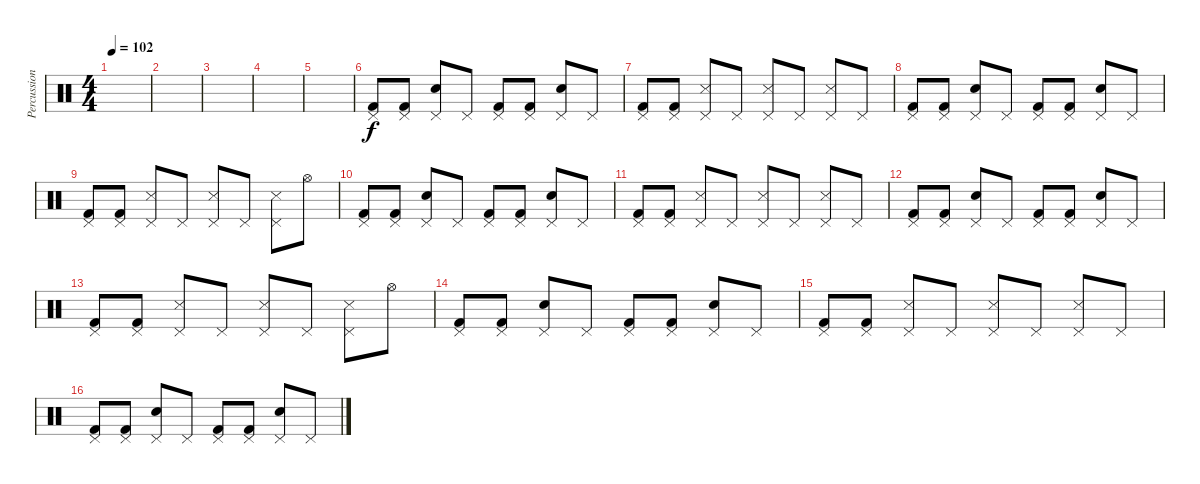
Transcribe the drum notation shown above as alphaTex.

\track ("Percussion" "Percussion") {instrument percussion}
\staff {score}
\articulation defaults
\ts (4 4)
\tempo 102
\clef neutral
\ks c
|
|
|
|
|
("Kick (hit) 2" "Pedal Hi-Hat (hit)").8 ("Kick (hit) 2" "Pedal Hi-Hat (hit)").8 ("Snare (hit) 2" "Pedal Hi-Hat (hit)").8 "Pedal Hi-Hat (hit)".8 ("Kick (hit) 2" "Pedal Hi-Hat (hit)").8 ("Kick (hit) 2" "Pedal Hi-Hat (hit)").8 ("Snare (hit) 2" "Pedal Hi-Hat (hit)").8 "Pedal Hi-Hat (hit)".8 |
("Kick (hit) 2" "Pedal Hi-Hat (hit)").8 ("Kick (hit) 2" "Pedal Hi-Hat (hit)").8 ("Metronome (hit)" "Pedal Hi-Hat (hit)").8 "Pedal Hi-Hat (hit)".8 ("Metronome (hit)" "Pedal Hi-Hat (hit)").8 "Pedal Hi-Hat (hit)".8 ("Metronome (hit)" "Pedal Hi-Hat (hit)").8 "Pedal Hi-Hat (hit)".8 |
("Kick (hit) 2" "Pedal Hi-Hat (hit)").8 ("Kick (hit) 2" "Pedal Hi-Hat (hit)").8 ("Snare (hit) 2" "Pedal Hi-Hat (hit)").8 "Pedal Hi-Hat (hit)".8 ("Kick (hit) 2" "Pedal Hi-Hat (hit)").8 ("Kick (hit) 2" "Pedal Hi-Hat (hit)").8 ("Snare (hit) 2" "Pedal Hi-Hat (hit)").8 "Pedal Hi-Hat (hit)".8 |
("Kick (hit) 2" "Pedal Hi-Hat (hit)").8 ("Kick (hit) 2" "Pedal Hi-Hat (hit)").8 ("Metronome (hit)" "Pedal Hi-Hat (hit)").8 "Pedal Hi-Hat (hit)".8 ("Metronome (hit)" "Pedal Hi-Hat (hit)").8 "Pedal Hi-Hat (hit)".8 ("Metronome (hit)" "Pedal Hi-Hat (hit)").8 "Hi-Hat (open)".8 |
("Kick (hit) 2" "Pedal Hi-Hat (hit)").8 ("Kick (hit) 2" "Pedal Hi-Hat (hit)").8 ("Snare (hit) 2" "Pedal Hi-Hat (hit)").8 "Pedal Hi-Hat (hit)".8 ("Kick (hit) 2" "Pedal Hi-Hat (hit)").8 ("Kick (hit) 2" "Pedal Hi-Hat (hit)").8 ("Snare (hit) 2" "Pedal Hi-Hat (hit)").8 "Pedal Hi-Hat (hit)".8 |
("Kick (hit) 2" "Pedal Hi-Hat (hit)").8 ("Kick (hit) 2" "Pedal Hi-Hat (hit)").8 ("Metronome (hit)" "Pedal Hi-Hat (hit)").8 "Pedal Hi-Hat (hit)".8 ("Metronome (hit)" "Pedal Hi-Hat (hit)").8 "Pedal Hi-Hat (hit)".8 ("Metronome (hit)" "Pedal Hi-Hat (hit)").8 "Pedal Hi-Hat (hit)".8 |
("Kick (hit) 2" "Pedal Hi-Hat (hit)").8 ("Kick (hit) 2" "Pedal Hi-Hat (hit)").8 ("Snare (hit) 2" "Pedal Hi-Hat (hit)").8 "Pedal Hi-Hat (hit)".8 ("Kick (hit) 2" "Pedal Hi-Hat (hit)").8 ("Kick (hit) 2" "Pedal Hi-Hat (hit)").8 ("Snare (hit) 2" "Pedal Hi-Hat (hit)").8 "Pedal Hi-Hat (hit)".8 |
("Kick (hit) 2" "Pedal Hi-Hat (hit)").8 ("Kick (hit) 2" "Pedal Hi-Hat (hit)").8 ("Metronome (hit)" "Pedal Hi-Hat (hit)").8 "Pedal Hi-Hat (hit)".8 ("Metronome (hit)" "Pedal Hi-Hat (hit)").8 "Pedal Hi-Hat (hit)".8 ("Metronome (hit)" "Pedal Hi-Hat (hit)").8 "Hi-Hat (open)".8 |
("Kick (hit) 2" "Pedal Hi-Hat (hit)").8 ("Kick (hit) 2" "Pedal Hi-Hat (hit)").8 ("Snare (hit) 2" "Pedal Hi-Hat (hit)").8 "Pedal Hi-Hat (hit)".8 ("Kick (hit) 2" "Pedal Hi-Hat (hit)").8 ("Kick (hit) 2" "Pedal Hi-Hat (hit)").8 ("Snare (hit) 2" "Pedal Hi-Hat (hit)").8 "Pedal Hi-Hat (hit)".8 |
("Kick (hit) 2" "Pedal Hi-Hat (hit)").8 ("Kick (hit) 2" "Pedal Hi-Hat (hit)").8 ("Metronome (hit)" "Pedal Hi-Hat (hit)").8 "Pedal Hi-Hat (hit)".8 ("Metronome (hit)" "Pedal Hi-Hat (hit)").8 "Pedal Hi-Hat (hit)".8 ("Metronome (hit)" "Pedal Hi-Hat (hit)").8 "Pedal Hi-Hat (hit)".8 |
("Kick (hit) 2" "Pedal Hi-Hat (hit)").8 ("Kick (hit) 2" "Pedal Hi-Hat (hit)").8 ("Snare (hit) 2" "Pedal Hi-Hat (hit)").8 "Pedal Hi-Hat (hit)".8 ("Kick (hit) 2" "Pedal Hi-Hat (hit)").8 ("Kick (hit) 2" "Pedal Hi-Hat (hit)").8 ("Snare (hit) 2" "Pedal Hi-Hat (hit)").8 "Pedal Hi-Hat (hit)".8
